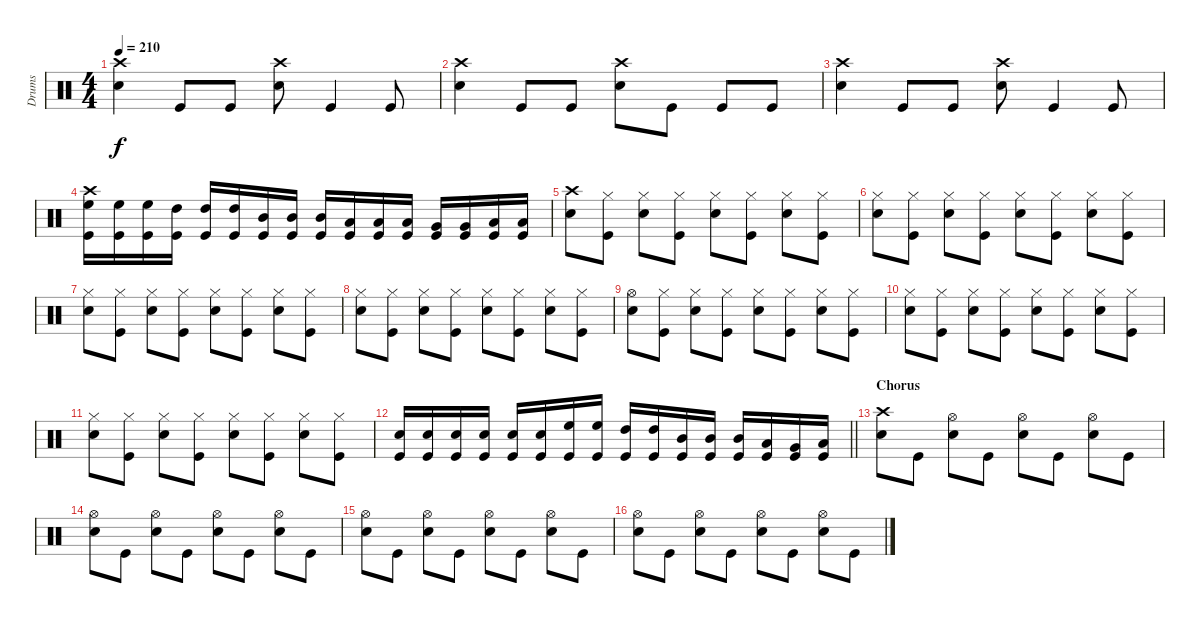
\track ("Drums" "Drums") {instrument percussion}
\staff {score}
\articulation defaults
\ts (4 4)
\tempo 210
\clef neutral
\ks c
("Crash high (hit)" "Snare (hit) 2").4{dy f} "Kick (hit)".8 "Kick (hit)".8 ("Crash high (hit)" "Snare (hit) 2").8 "Kick (hit)".4 "Kick (hit)".8 |
("Crash high (hit)" "Snare (hit) 2").4 "Kick (hit)".8 "Kick (hit)".8 ("Crash high (hit)" "Snare (hit) 2").8 "Kick (hit)".8 "Kick (hit)".8 "Kick (hit)".8 |
("Crash high (hit)" "Snare (hit) 2").4 "Kick (hit)".8 "Kick (hit)".8 ("Crash high (hit)" "Snare (hit) 2").8 "Kick (hit)".4 "Kick (hit)".8 |
("Crash high (hit)" "High Floor Tom (hit)" "Kick (hit)").16 ("High Floor Tom (hit)" "Kick (hit)").16 ("High Floor Tom (hit)" "Kick (hit)").16 ("High Tom (hit)" "Kick (hit)").16 ("High Tom (hit)" "Kick (hit)").16 ("High Tom (hit)" "Kick (hit)").16 ("Mid Tom (hit)" "Kick (hit)").16 ("Mid Tom (hit)" "Kick (hit)").16 ("Mid Tom (hit)" "Kick (hit)").16 ("Low Tom (hit)" "Kick (hit)").16 ("Low Tom (hit)" "Kick (hit)").16 ("Low Tom (hit)" "Kick (hit)").16 ("Very Low Tom (hit)" "Kick (hit)").16 ("Very Low Tom (hit)" "Kick (hit)").16 ("Low Floor Tom (hit)" "Kick (hit)").16 ("Low Floor Tom (hit)" "Kick (hit)").16 |
("Crash high (hit)" "Snare (hit) 2").8 ("Hi-Hat (closed)" "Kick (hit)").8 ("Hi-Hat (closed)" "Snare (hit) 2").8 ("Hi-Hat (closed)" "Kick (hit)").8 ("Hi-Hat (closed)" "Snare (hit) 2").8 ("Hi-Hat (closed)" "Kick (hit)").8 ("Hi-Hat (closed)" "Snare (hit) 2").8 ("Hi-Hat (closed)" "Kick (hit)").8 |
("Hi-Hat (closed)" "Snare (hit) 2").8 ("Hi-Hat (closed)" "Kick (hit)").8 ("Hi-Hat (closed)" "Snare (hit) 2").8 ("Hi-Hat (closed)" "Kick (hit)").8 ("Hi-Hat (closed)" "Snare (hit) 2").8 ("Hi-Hat (closed)" "Kick (hit)").8 ("Hi-Hat (closed)" "Snare (hit) 2").8 ("Hi-Hat (closed)" "Kick (hit)").8 |
("Hi-Hat (closed)" "Snare (hit) 2").8 ("Hi-Hat (closed)" "Kick (hit)").8 ("Hi-Hat (closed)" "Snare (hit) 2").8 ("Hi-Hat (closed)" "Kick (hit)").8 ("Hi-Hat (closed)" "Snare (hit) 2").8 ("Hi-Hat (closed)" "Kick (hit)").8 ("Hi-Hat (closed)" "Snare (hit) 2").8 ("Hi-Hat (closed)" "Kick (hit)").8 |
("Hi-Hat (closed)" "Snare (hit) 2").8 ("Hi-Hat (closed)" "Kick (hit)").8 ("Hi-Hat (closed)" "Snare (hit) 2").8 ("Hi-Hat (closed)" "Kick (hit)").8 ("Hi-Hat (closed)" "Snare (hit) 2").8 ("Hi-Hat (closed)" "Kick (hit)").8 ("Hi-Hat (closed)" "Snare (hit) 2").8 ("Hi-Hat (closed)" "Kick (hit)").8 |
("Hi-Hat (open)" "Snare (hit) 2").8 ("Hi-Hat (closed)" "Kick (hit)").8 ("Hi-Hat (closed)" "Snare (hit) 2").8 ("Hi-Hat (closed)" "Kick (hit)").8 ("Hi-Hat (closed)" "Snare (hit) 2").8 ("Hi-Hat (closed)" "Kick (hit)").8 ("Hi-Hat (closed)" "Snare (hit) 2").8 ("Hi-Hat (closed)" "Kick (hit)").8 |
("Hi-Hat (closed)" "Snare (hit) 2").8 ("Hi-Hat (closed)" "Kick (hit)").8 ("Hi-Hat (closed)" "Snare (hit) 2").8 ("Hi-Hat (closed)" "Kick (hit)").8 ("Hi-Hat (closed)" "Snare (hit) 2").8 ("Hi-Hat (closed)" "Kick (hit)").8 ("Hi-Hat (closed)" "Snare (hit) 2").8 ("Hi-Hat (closed)" "Kick (hit)").8 |
("Hi-Hat (closed)" "Snare (hit) 2").8 ("Hi-Hat (closed)" "Kick (hit)").8 ("Hi-Hat (closed)" "Snare (hit) 2").8 ("Hi-Hat (closed)" "Kick (hit)").8 ("Hi-Hat (closed)" "Snare (hit) 2").8 ("Hi-Hat (closed)" "Kick (hit)").8 ("Hi-Hat (closed)" "Snare (hit) 2").8 ("Hi-Hat (closed)" "Kick (hit)").8 |
\barLineRight lightlight
("Snare (hit) 2" "Kick (hit)").16 ("Snare (hit) 2" "Kick (hit)").16 ("Snare (hit) 2" "Kick (hit)").16 ("Snare (hit) 2" "Kick (hit)").16 ("Snare (hit) 2" "Kick (hit)").16 ("Snare (hit) 2" "Kick (hit)").16 ("High Floor Tom (hit)" "Kick (hit)").16 ("High Floor Tom (hit)" "Kick (hit)").16 ("High Tom (hit)" "Kick (hit)").16 ("High Tom (hit)" "Kick (hit)").16 ("Mid Tom (hit)" "Kick (hit)").16 ("Mid Tom (hit)" "Kick (hit)").16 ("Mid Tom (hit)" "Kick (hit)").16 ("Low Tom (hit)" "Kick (hit)").16 ("Very Low Tom (hit)" "Kick (hit)").16 ("Low Floor Tom (hit)" "Kick (hit)").16 |
\section ("" "Chorus")
("Crash high (hit)" "Snare (hit) 2").8 "Kick (hit)".8 ("Hi-Hat (open)" "Snare (hit) 2").8 "Kick (hit)".8 ("Hi-Hat (open)" "Snare (hit) 2").8 "Kick (hit)".8 ("Hi-Hat (open)" "Snare (hit) 2").8 "Kick (hit)".8 |
("Hi-Hat (open)" "Snare (hit) 2").8 "Kick (hit)".8 ("Hi-Hat (open)" "Snare (hit) 2").8 "Kick (hit)".8 ("Hi-Hat (open)" "Snare (hit) 2").8 "Kick (hit)".8 ("Hi-Hat (open)" "Snare (hit) 2").8 "Kick (hit)".8 |
("Hi-Hat (open)" "Snare (hit) 2").8 "Kick (hit)".8 ("Hi-Hat (open)" "Snare (hit) 2").8 "Kick (hit)".8 ("Hi-Hat (open)" "Snare (hit) 2").8 "Kick (hit)".8 ("Hi-Hat (open)" "Snare (hit) 2").8 "Kick (hit)".8 |
("Hi-Hat (open)" "Snare (hit) 2").8 "Kick (hit)".8 ("Hi-Hat (open)" "Snare (hit) 2").8 "Kick (hit)".8 ("Hi-Hat (open)" "Snare (hit) 2").8 "Kick (hit)".8 ("Hi-Hat (open)" "Snare (hit) 2").8 "Kick (hit)".8
